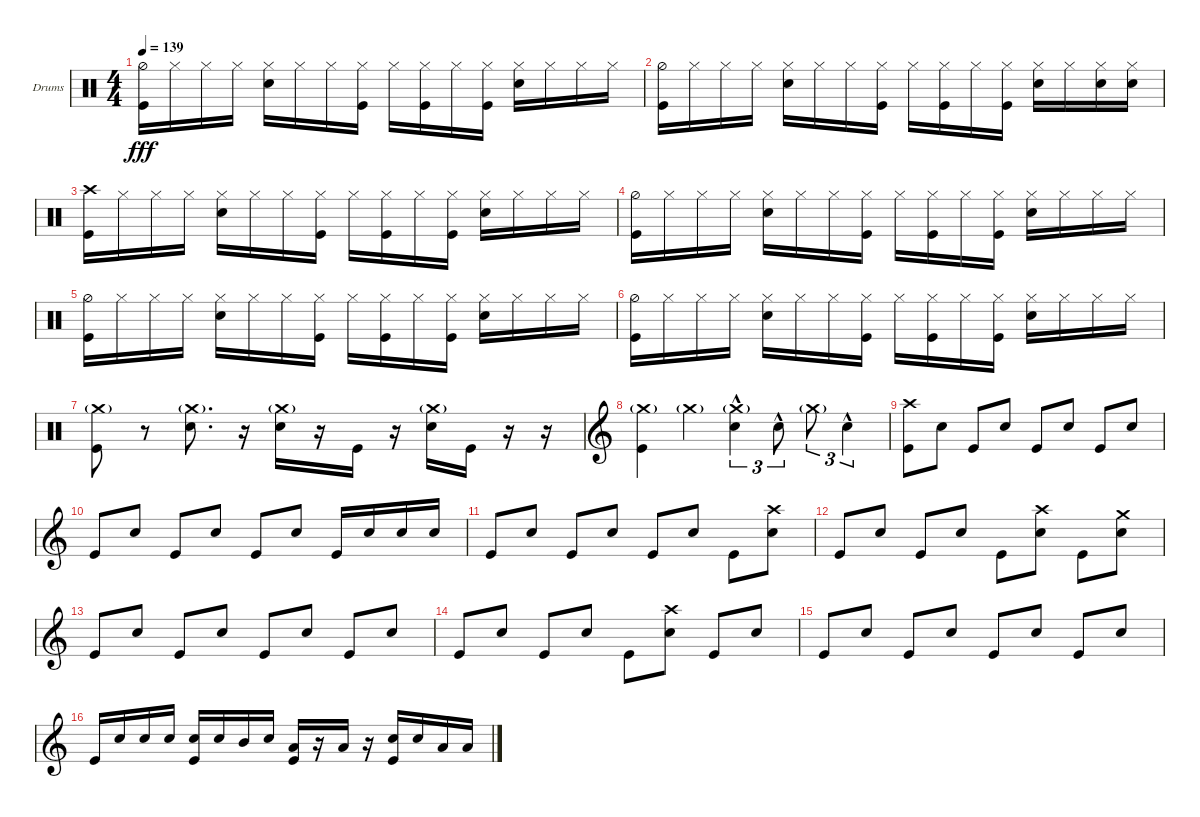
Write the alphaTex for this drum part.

\defaultSystemsLayout 4
\bracketExtendMode groupsimilarinstruments
\firstSystemTrackNameOrientation horizontal
\otherSystemsTrackNameOrientation horizontal
\track ("Drumkit" "Drums") {instrument percussion}
\staff {score}
\articulation defaults
\ts (4 4)
\tempo 139
\clef neutral
\ks c
("Hi-Hat (half)" "Kick (hit)").16{dy fff} "Hi-Hat (closed)".16 "Hi-Hat (closed)".16 "Hi-Hat (closed)".16 ("Hi-Hat (closed)" "Snare (hit) 2").16 "Hi-Hat (closed)".16 "Hi-Hat (closed)".16 ("Hi-Hat (closed)" "Kick (hit)").16 "Hi-Hat (closed)".16 ("Hi-Hat (closed)" "Kick (hit)").16 "Hi-Hat (closed)".16 ("Hi-Hat (closed)" "Kick (hit)").16 ("Hi-Hat (closed)" "Snare (hit) 2").16 "Hi-Hat (closed)".16 "Hi-Hat (closed)".16 "Hi-Hat (closed)".16 |
("Hi-Hat (half)" "Kick (hit)").16 "Hi-Hat (closed)".16 "Hi-Hat (closed)".16 "Hi-Hat (closed)".16 ("Hi-Hat (closed)" "Snare (hit) 2").16 "Hi-Hat (closed)".16 "Hi-Hat (closed)".16 ("Hi-Hat (closed)" "Kick (hit)").16 "Hi-Hat (closed)".16 ("Hi-Hat (closed)" "Kick (hit)").16 "Hi-Hat (closed)".16 ("Hi-Hat (closed)" "Kick (hit)").16 ("Hi-Hat (closed)" "Snare (hit) 2").16 "Hi-Hat (closed)".16 ("Hi-Hat (closed)" "Snare (hit) 2").16 ("Hi-Hat (closed)" "Snare (hit) 2").16 |
("Kick (hit)" "Crash high (hit)").16 "Hi-Hat (closed)".16 "Hi-Hat (closed)".16 "Hi-Hat (closed)".16 ("Hi-Hat (closed)" "Snare (hit) 2").16 "Hi-Hat (closed)".16 "Hi-Hat (closed)".16 ("Hi-Hat (closed)" "Kick (hit)").16 "Hi-Hat (closed)".16 ("Hi-Hat (closed)" "Kick (hit)").16 "Hi-Hat (closed)".16 ("Hi-Hat (closed)" "Kick (hit)").16 ("Hi-Hat (closed)" "Snare (hit) 2").16 "Hi-Hat (closed)".16 "Hi-Hat (closed)".16 "Hi-Hat (closed)".16 |
("Hi-Hat (half)" "Kick (hit)").16 "Hi-Hat (closed)".16 "Hi-Hat (closed)".16 "Hi-Hat (closed)".16 ("Hi-Hat (closed)" "Snare (hit) 2").16 "Hi-Hat (closed)".16 "Hi-Hat (closed)".16 ("Hi-Hat (closed)" "Kick (hit)").16 "Hi-Hat (closed)".16 ("Hi-Hat (closed)" "Kick (hit)").16 "Hi-Hat (closed)".16 ("Hi-Hat (closed)" "Kick (hit)").16 ("Hi-Hat (closed)" "Snare (hit) 2").16 "Hi-Hat (closed)".16 "Hi-Hat (closed)".16 "Hi-Hat (closed)".16 |
("Hi-Hat (half)" "Kick (hit)").16 "Hi-Hat (closed)".16 "Hi-Hat (closed)".16 "Hi-Hat (closed)".16 ("Hi-Hat (closed)" "Snare (hit) 2").16 "Hi-Hat (closed)".16 "Hi-Hat (closed)".16 ("Hi-Hat (closed)" "Kick (hit)").16 "Hi-Hat (closed)".16 ("Hi-Hat (closed)" "Kick (hit)").16 "Hi-Hat (closed)".16 ("Hi-Hat (closed)" "Kick (hit)").16 ("Hi-Hat (closed)" "Snare (hit) 2").16 "Hi-Hat (closed)".16 "Hi-Hat (closed)".16 "Hi-Hat (closed)".16 |
("Hi-Hat (half)" "Kick (hit)").16 "Hi-Hat (closed)".16 "Hi-Hat (closed)".16 "Hi-Hat (closed)".16 ("Hi-Hat (closed)" "Snare (hit) 2").16 "Hi-Hat (closed)".16 "Hi-Hat (closed)".16 ("Hi-Hat (closed)" "Kick (hit)").16 "Hi-Hat (closed)".16 ("Hi-Hat (closed)" "Kick (hit)").16 "Hi-Hat (closed)".16 ("Hi-Hat (closed)" "Kick (hit)").16 ("Hi-Hat (closed)" "Snare (hit) 2").16 "Hi-Hat (closed)".16 "Hi-Hat (closed)".16 "Hi-Hat (closed)".16 |
("Kick (hit)" "Crash medium (hit)"{g}).8 r.8 ("Snare (hit) 2" "Crash medium (hit)"{g}).8{d} r.16 ("Snare (hit) 2" "Crash medium (hit)"{g}).16 r.16 "Kick (hit)".16 r.16 ("Snare (hit) 2" "Crash medium (hit)"{g}).16 "Kick (hit)".16 r.16 r.16 |
\clef g2
("Kick (hit)" "Crash medium (hit)"{g}).4 "Crash medium (hit)"{g}.4 ("Snare (hit) 2"{hac} "Crash medium (hit)"{g}).4{tu (3 2)} "Snare (hit) 2"{hac}.8{tu (3 2)} "Crash medium (hit)"{g}.8{tu (3 2)} "Snare (hit) 2"{hac}.4{tu (3 2)} |
("Kick (hit)" "Crash high (hit)").8 "Snare (hit) 2".8 "Kick (hit)".8 "Snare (hit) 2".8 "Kick (hit)".8 "Snare (hit) 2".8 "Kick (hit)".8 "Snare (hit) 2".8 |
"Kick (hit)".8 "Snare (hit) 2".8 "Kick (hit)".8 "Snare (hit) 2".8 "Kick (hit)".8 "Snare (hit) 2".8 "Kick (hit)".16 "Snare (hit) 2".16 "Snare (hit) 2".16 "Snare (hit) 2".16 |
"Kick (hit)".8 "Snare (hit) 2".8 "Kick (hit)".8 "Snare (hit) 2".8 "Kick (hit)".8 "Snare (hit) 2".8 "Kick (hit)".8 ("Snare (hit) 2" "Crash high (hit)").8 |
"Kick (hit)".8 "Snare (hit) 2".8 "Kick (hit)".8 "Snare (hit) 2".8 "Kick (hit)".8 ("Crash high (hit)" "Snare (hit) 2").8 "Kick (hit)".8 ("Snare (hit) 2" "Crash medium (hit)").8 |
"Kick (hit)".8 "Snare (hit) 2".8 "Kick (hit)".8 "Snare (hit) 2".8 "Kick (hit)".8 "Snare (hit) 2".8 "Kick (hit)".8 "Snare (hit) 2".8 |
"Kick (hit)".8 "Snare (hit) 2".8 "Kick (hit)".8 "Snare (hit) 2".8 "Kick (hit)".8 ("Snare (hit) 2" "Crash high (hit)").8 "Kick (hit)".8 "Snare (hit) 2".8 |
"Kick (hit)".8 "Snare (hit) 2".8 "Kick (hit)".8 "Snare (hit) 2".8 "Kick (hit)".8 "Snare (hit) 2".8 "Kick (hit)".8 "Snare (hit) 2".8 |
"Kick (hit)".16 "Snare (hit) 2".16 "Snare (hit) 2".16 "Snare (hit) 2".16 ("Kick (hit)" "Snare (hit) 2").16 "Snare (hit) 2".16 "Mid Tom (hit)".16 "Snare (hit) 2".16 ("Kick (hit)" "Low Tom (hit)").16 r.16 "Low Tom (hit)".16 r.16 ("Kick (hit)" "Snare (hit) 2").16 "Snare (hit) 2".16 "Low Tom (hit)".16 "Low Tom (hit)".16
